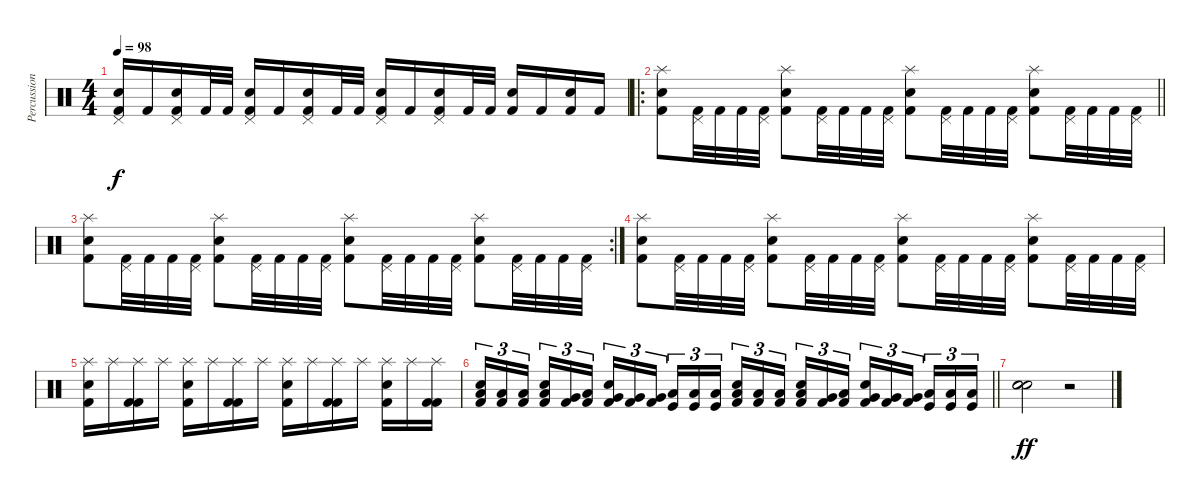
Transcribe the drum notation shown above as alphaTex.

\track ("Percussion" "Percussion") {instrument percussion}
\staff {score}
\articulation defaults
\ts (4 4)
\tempo 98
\clef neutral
\ks c
("Pedal Hi-Hat (hit)" "Snare (hit) 2" "Kick (hit) 2").16{dy f} "Kick (hit) 2".16 ("Pedal Hi-Hat (hit)" "Snare (hit) 2" "Kick (hit) 2").16 "Kick (hit) 2".32 "Kick (hit) 2".32 ("Pedal Hi-Hat (hit)" "Snare (hit) 2" "Kick (hit) 2").16 "Kick (hit) 2".16 ("Pedal Hi-Hat (hit)" "Snare (hit) 2" "Kick (hit) 2").16 "Kick (hit) 2".32 "Kick (hit) 2".32 ("Pedal Hi-Hat (hit)" "Snare (hit) 2" "Kick (hit) 2").16 "Kick (hit) 2".16 ("Pedal Hi-Hat (hit)" "Snare (hit) 2" "Kick (hit) 2").16 "Kick (hit) 2".32 "Kick (hit) 2".32 ("Snare (hit) 2" "Kick (hit) 2").16 "Kick (hit) 2".16 ("Snare (hit) 2" "Kick (hit) 2").16 "Kick (hit) 2".16 |
\ro
\barLineRight lightlight
("Splash (hit)" "Snare (hit) 2" "Kick (hit) 2").8 ("Pedal Hi-Hat (hit)" "Kick (hit) 2").32 "Kick (hit) 2".32 "Kick (hit) 2".32 ("Pedal Hi-Hat (hit)" "Kick (hit) 2").32 ("Splash (hit)" "Snare (hit) 2" "Kick (hit) 2").8 ("Pedal Hi-Hat (hit)" "Kick (hit) 2").32 "Kick (hit) 2".32 "Kick (hit) 2".32 ("Pedal Hi-Hat (hit)" "Kick (hit) 2").32 ("Splash (hit)" "Snare (hit) 2" "Kick (hit) 2").8 ("Pedal Hi-Hat (hit)" "Kick (hit) 2").32 "Kick (hit) 2".32 "Kick (hit) 2".32 ("Pedal Hi-Hat (hit)" "Kick (hit) 2").32 ("Splash (hit)" "Snare (hit) 2" "Kick (hit) 2").8 ("Pedal Hi-Hat (hit)" "Kick (hit) 2").32 "Kick (hit) 2".32 "Kick (hit) 2".32 ("Pedal Hi-Hat (hit)" "Kick (hit) 2").32 |
\rc 2
("Splash (hit)" "Snare (hit) 2" "Kick (hit) 2").8 ("Pedal Hi-Hat (hit)" "Kick (hit) 2").32 "Kick (hit) 2".32 "Kick (hit) 2".32 ("Pedal Hi-Hat (hit)" "Kick (hit) 2").32 ("Splash (hit)" "Snare (hit) 2" "Kick (hit) 2").8 ("Pedal Hi-Hat (hit)" "Kick (hit) 2").32 "Kick (hit) 2".32 "Kick (hit) 2".32 ("Pedal Hi-Hat (hit)" "Kick (hit) 2").32 ("Splash (hit)" "Snare (hit) 2" "Kick (hit) 2").8 ("Pedal Hi-Hat (hit)" "Kick (hit) 2").32 "Kick (hit) 2".32 "Kick (hit) 2".32 ("Pedal Hi-Hat (hit)" "Kick (hit) 2").32 ("Splash (hit)" "Snare (hit) 2" "Kick (hit) 2").8 ("Pedal Hi-Hat (hit)" "Kick (hit) 2").32 "Kick (hit) 2".32 "Kick (hit) 2".32 ("Pedal Hi-Hat (hit)" "Kick (hit) 2").32 |
("Splash (hit)" "Snare (hit) 2" "Kick (hit) 2").8 ("Pedal Hi-Hat (hit)" "Kick (hit) 2").32 "Kick (hit) 2".32 "Kick (hit) 2".32 ("Pedal Hi-Hat (hit)" "Kick (hit) 2").32 ("Splash (hit)" "Snare (hit) 2" "Kick (hit) 2").8 ("Pedal Hi-Hat (hit)" "Kick (hit) 2").32 "Kick (hit) 2".32 "Kick (hit) 2".32 ("Pedal Hi-Hat (hit)" "Kick (hit) 2").32 ("Splash (hit)" "Snare (hit) 2" "Kick (hit) 2").8 ("Pedal Hi-Hat (hit)" "Kick (hit) 2").32 "Kick (hit) 2".32 "Kick (hit) 2".32 ("Pedal Hi-Hat (hit)" "Kick (hit) 2").32 ("Splash (hit)" "Snare (hit) 2" "Kick (hit) 2").8 ("Pedal Hi-Hat (hit)" "Kick (hit) 2").32 "Kick (hit) 2".32 "Kick (hit) 2".32 ("Pedal Hi-Hat (hit)" "Kick (hit) 2").32 |
("Splash (hit)" "Snare (hit) 2" "Kick (hit) 2").16 "Splash (hit)".16 ("Splash (hit)" "Kick (hit) 2" "Kick (hit) 2").16 "Splash (hit)".16 ("Splash (hit)" "Snare (hit) 2" "Kick (hit) 2").16 "Splash (hit)".16 ("Splash (hit)" "Kick (hit) 2" "Kick (hit) 2").16 "Splash (hit)".16 ("Splash (hit)" "Snare (hit) 2" "Kick (hit) 2").16 "Splash (hit)".16 ("Splash (hit)" "Kick (hit) 2" "Kick (hit) 2").16 "Splash (hit)".16 ("Splash (hit)" "Snare (hit) 2" "Kick (hit) 2").16 "Splash (hit)".16 ("Splash (hit)" "Kick (hit) 2" "Kick (hit) 2").16 |
\barLineRight lightlight
("Low Floor Tom (hit)" "Kick (hit) 2" "Snare (hit) 2").16{tu (3 2)} ("Low Floor Tom (hit)" "Kick (hit) 2").16{tu (3 2)} ("Low Floor Tom (hit)" "Kick (hit) 2").16{tu (3 2) beam splitsecondary} ("Low Tom (hit)" "Kick (hit) 2" "Snare (hit) 2").16{tu (3 2)} ("Very Low Tom (hit)" "Kick (hit) 2").16{tu (3 2)} ("Low Floor Tom (hit)" "Kick (hit) 2").16{tu (3 2)} ("Very Low Tom (hit)" "Kick (hit) 2" "Snare (hit) 2").16{tu (3 2)} ("Very Low Tom (hit)" "Kick (hit) 2").16{tu (3 2)} ("Very Low Tom (hit)" "Kick (hit) 2").16{tu (3 2) beam splitsecondary} ("Low Floor Tom (hit)" "Kick (hit)").16{tu (3 2)} ("Low Floor Tom (hit)" "Kick (hit)").16{tu (3 2)} ("Low Floor Tom (hit)" "Kick (hit)").16{tu (3 2)} ("Low Floor Tom (hit)" "Kick (hit) 2" "Snare (hit) 2").16{tu (3 2)} ("Low Floor Tom (hit)" "Kick (hit) 2").16{tu (3 2)} ("Low Floor Tom (hit)" "Kick (hit) 2").16{tu (3 2) beam splitsecondary} ("Low Tom (hit)" "Kick (hit) 2" "Snare (hit) 2").16{tu (3 2)} ("Very Low Tom (hit)" "Kick (hit) 2").16{tu (3 2)} ("Low Floor Tom (hit)" "Kick (hit) 2").16{tu (3 2)} ("Very Low Tom (hit)" "Kick (hit) 2" "Snare (hit) 2").16{tu (3 2)} ("Very Low Tom (hit)" "Kick (hit) 2").16{tu (3 2)} ("Very Low Tom (hit)" "Kick (hit) 2").16{tu (3 2) beam splitsecondary} ("Low Floor Tom (hit)" "Kick (hit)").16{tu (3 2)} ("Low Floor Tom (hit)" "Kick (hit)").16{tu (3 2)} ("Low Floor Tom (hit)" "Kick (hit)").16{tu (3 2)} |
("Snare (hit) 2" "Snare (hit) 2" "Snare (hit) 2").2{dy ff} r.2
